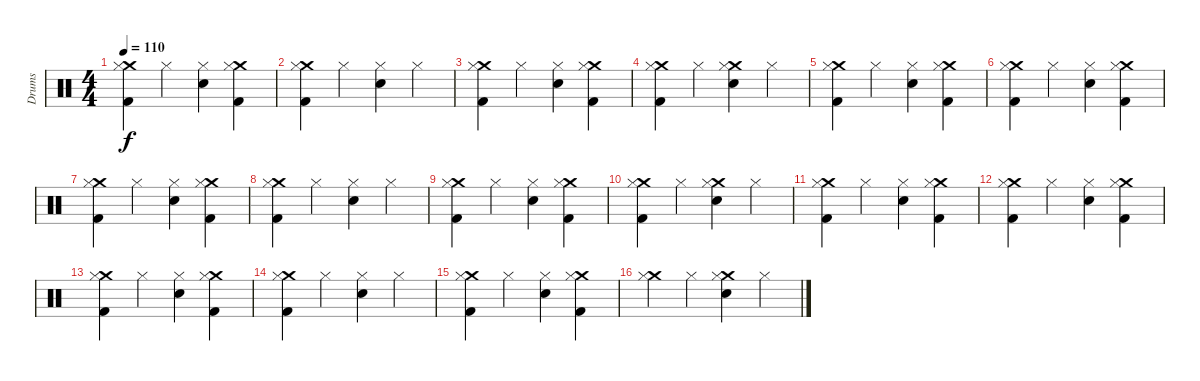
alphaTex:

\track ("Drums" "Drums") {instrument percussion}
\staff {score}
\articulation defaults
\ts (4 4)
\tempo 110
\clef neutral
\ks c
("Crash medium (hit)" "Kick (hit) 2" "Hi-Hat (closed)").4{dy f} "Hi-Hat (closed)".4 ("Snare (hit) 2" "Hi-Hat (closed)").4 ("Crash medium (hit)" "Kick (hit) 2" "Hi-Hat (closed)").4 |
("Crash medium (hit)" "Kick (hit) 2" "Hi-Hat (closed)").4 "Hi-Hat (closed)".4 ("Snare (hit) 2" "Hi-Hat (closed)").4 "Hi-Hat (closed)".4 |
("Crash medium (hit)" "Kick (hit) 2" "Hi-Hat (closed)").4 "Hi-Hat (closed)".4 ("Snare (hit) 2" "Hi-Hat (closed)").4 ("Crash medium (hit)" "Kick (hit) 2" "Hi-Hat (closed)").4 |
("Crash medium (hit)" "Kick (hit) 2" "Hi-Hat (closed)").4 "Hi-Hat (closed)".4 ("Crash medium (hit)" "Snare (hit) 2" "Hi-Hat (closed)").4 "Hi-Hat (closed)".4 |
("Crash medium (hit)" "Kick (hit) 2" "Hi-Hat (closed)").4 "Hi-Hat (closed)".4 ("Snare (hit) 2" "Hi-Hat (closed)").4 ("Crash medium (hit)" "Kick (hit) 2" "Hi-Hat (closed)").4 |
("Crash medium (hit)" "Kick (hit) 2" "Hi-Hat (closed)").4 "Hi-Hat (closed)".4 ("Snare (hit) 2" "Hi-Hat (closed)").4 ("Crash medium (hit)" "Kick (hit) 2" "Hi-Hat (closed)").4 |
("Crash medium (hit)" "Kick (hit) 2" "Hi-Hat (closed)").4 "Hi-Hat (closed)".4 ("Snare (hit) 2" "Hi-Hat (closed)").4 ("Crash medium (hit)" "Kick (hit) 2" "Hi-Hat (closed)").4 |
("Crash medium (hit)" "Kick (hit) 2" "Hi-Hat (closed)").4 "Hi-Hat (closed)".4 ("Snare (hit) 2" "Hi-Hat (closed)").4 "Hi-Hat (closed)".4 |
("Crash medium (hit)" "Kick (hit) 2" "Hi-Hat (closed)").4 "Hi-Hat (closed)".4 ("Snare (hit) 2" "Hi-Hat (closed)").4 ("Crash medium (hit)" "Kick (hit) 2" "Hi-Hat (closed)").4 |
("Crash medium (hit)" "Kick (hit) 2" "Hi-Hat (closed)").4 "Hi-Hat (closed)".4 ("Crash medium (hit)" "Snare (hit) 2" "Hi-Hat (closed)").4 "Hi-Hat (closed)".4 |
("Crash medium (hit)" "Kick (hit) 2" "Hi-Hat (closed)").4 "Hi-Hat (closed)".4 ("Snare (hit) 2" "Hi-Hat (closed)").4 ("Crash medium (hit)" "Kick (hit) 2" "Hi-Hat (closed)").4 |
("Crash medium (hit)" "Kick (hit) 2" "Hi-Hat (closed)").4 "Hi-Hat (closed)".4 ("Snare (hit) 2" "Hi-Hat (closed)").4 ("Crash medium (hit)" "Kick (hit) 2" "Hi-Hat (closed)").4 |
("Crash medium (hit)" "Kick (hit) 2" "Hi-Hat (closed)").4 "Hi-Hat (closed)".4 ("Snare (hit) 2" "Hi-Hat (closed)").4 ("Crash medium (hit)" "Kick (hit) 2" "Hi-Hat (closed)").4 |
("Crash medium (hit)" "Kick (hit) 2" "Hi-Hat (closed)").4 "Hi-Hat (closed)".4 ("Snare (hit) 2" "Hi-Hat (closed)").4 "Hi-Hat (closed)".4 |
("Crash medium (hit)" "Kick (hit) 2" "Hi-Hat (closed)").4 "Hi-Hat (closed)".4 ("Snare (hit) 2" "Hi-Hat (closed)").4 ("Crash medium (hit)" "Kick (hit) 2" "Hi-Hat (closed)").4 |
("Crash medium (hit)" "Hi-Hat (closed)").4 "Hi-Hat (closed)".4 ("Crash medium (hit)" "Snare (hit) 2" "Hi-Hat (closed)").4 "Hi-Hat (closed)".4
